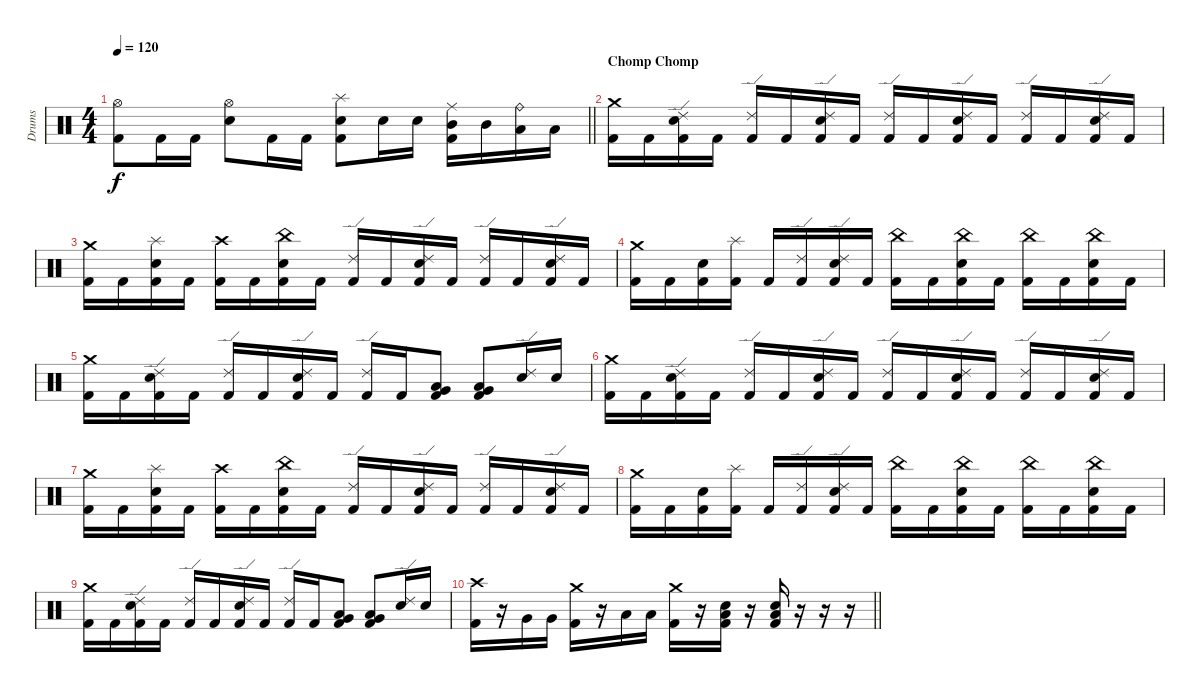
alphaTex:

\track ("Drums" "Drums") {instrument percussion}
\staff {score}
\articulation defaults
\ts (4 4)
\tempo 120
\clef neutral
\barLineRight lightlight
\ks c
("Hi-Hat (open)" "Kick (hit) 2").8{dy f} "Kick (hit) 2".16 "Kick (hit) 2".16 ("Hi-Hat (open)" "Snare (hit) 2").8 "Kick (hit) 2".16 "Kick (hit) 2".16 ("Splash (hit)" "Snare (hit) 2" "Kick (hit) 2").8 "Snare (hit) 2".16 "Snare (hit) 2".16 ("Ride (middle)" "Mid Tom (hit)" "Kick (hit) 2").16 "Mid Tom (hit)".16 ("Ride (bell)" "Low Tom (hit)").16 "Low Tom (hit)".16 |
\section ("" "Chomp Chomp")
("Crash medium (hit)" "Kick (hit) 2").16 "Kick (hit) 2".16 ("Ride (edge) 2" "Snare (hit) 2" "Kick (hit) 2").16 "Kick (hit) 2".16 ("Ride (edge) 2" "Kick (hit) 2").16 "Kick (hit) 2".16 ("Ride (edge) 2" "Snare (hit) 2" "Kick (hit) 2").16 "Kick (hit) 2".16 ("Ride (edge) 2" "Kick (hit) 2").16 "Kick (hit) 2".16 ("Ride (edge) 2" "Snare (hit) 2" "Kick (hit) 2").16 "Kick (hit) 2".16 ("Ride (edge) 2" "Kick (hit) 2").16 "Kick (hit) 2".16 ("Ride (edge) 2" "Snare (hit) 2" "Kick (hit) 2").16 "Kick (hit) 2".16 |
("Crash medium (hit)" "Kick (hit) 2").16 "Kick (hit) 2".16 ("Splash (hit)" "Snare (hit) 2" "Kick (hit) 2").16 "Kick (hit) 2".16 ("Crash high (hit)" "Kick (hit) 2").16 "Kick (hit) 2".16 ("China (hit)" "Snare (hit) 2" "Kick (hit) 2").16 "Kick (hit) 2".16 ("Ride (edge) 2" "Kick (hit) 2").16 "Kick (hit) 2".16 ("Ride (edge) 2" "Snare (hit) 2" "Kick (hit) 2").16 "Kick (hit) 2".16 ("Ride (edge) 2" "Kick (hit) 2").16 "Kick (hit) 2".16 ("Ride (edge) 2" "Snare (hit) 2" "Kick (hit) 2").16 "Kick (hit) 2".16 |
("Crash medium (hit)" "Kick (hit) 2").16 "Kick (hit) 2".16 ("Snare (hit) 2" "Kick (hit) 2").16 ("Splash (hit)" "Kick (hit) 2").16 "Kick (hit) 2".16 ("Ride (edge) 2" "Kick (hit) 2").16 ("Ride (edge) 2" "Snare (hit) 2" "Kick (hit) 2").16 "Kick (hit) 2".16 ("China (hit)" "Kick (hit) 2").16 "Kick (hit) 2".16 ("China (hit)" "Snare (hit) 2" "Kick (hit) 2").16 "Kick (hit) 2".16 ("China (hit)" "Kick (hit) 2").16 "Kick (hit) 2".16 ("China (hit)" "Snare (hit) 2" "Kick (hit) 2").16 "Kick (hit) 2".16 |
("Crash medium (hit)" "Kick (hit) 2").16 "Kick (hit) 2".16 ("Ride (edge) 2" "Snare (hit) 2" "Kick (hit) 2").16 "Kick (hit) 2".16 ("Ride (edge) 2" "Kick (hit) 2").16 "Kick (hit) 2".16 ("Ride (edge) 2" "Snare (hit) 2" "Kick (hit) 2").16 "Kick (hit) 2".16 ("Ride (edge) 2" "Kick (hit) 2").16 "Kick (hit) 2".16 ("Very Low Tom (hit)" "Low Floor Tom (hit)" "Kick (hit) 2").8 ("Very Low Tom (hit)" "Low Floor Tom (hit)" "Kick (hit) 2").8 ("Ride (edge) 2" "Snare (hit) 2").16 "Snare (hit) 2".16 |
("Crash medium (hit)" "Kick (hit) 2").16 "Kick (hit) 2".16 ("Ride (edge) 2" "Snare (hit) 2" "Kick (hit) 2").16 "Kick (hit) 2".16 ("Ride (edge) 2" "Kick (hit) 2").16 "Kick (hit) 2".16 ("Ride (edge) 2" "Snare (hit) 2" "Kick (hit) 2").16 "Kick (hit) 2".16 ("Ride (edge) 2" "Kick (hit) 2").16 "Kick (hit) 2".16 ("Ride (edge) 2" "Snare (hit) 2" "Kick (hit) 2").16 "Kick (hit) 2".16 ("Ride (edge) 2" "Kick (hit) 2").16 "Kick (hit) 2".16 ("Ride (edge) 2" "Snare (hit) 2" "Kick (hit) 2").16 "Kick (hit) 2".16 |
("Crash medium (hit)" "Kick (hit) 2").16 "Kick (hit) 2".16 ("Splash (hit)" "Snare (hit) 2" "Kick (hit) 2").16 "Kick (hit) 2".16 ("Crash high (hit)" "Kick (hit) 2").16 "Kick (hit) 2".16 ("China (hit)" "Snare (hit) 2" "Kick (hit) 2").16 "Kick (hit) 2".16 ("Ride (edge) 2" "Kick (hit) 2").16 "Kick (hit) 2".16 ("Ride (edge) 2" "Snare (hit) 2" "Kick (hit) 2").16 "Kick (hit) 2".16 ("Ride (edge) 2" "Kick (hit) 2").16 "Kick (hit) 2".16 ("Ride (edge) 2" "Snare (hit) 2" "Kick (hit) 2").16 "Kick (hit) 2".16 |
("Crash medium (hit)" "Kick (hit) 2").16 "Kick (hit) 2".16 ("Snare (hit) 2" "Kick (hit) 2").16 ("Splash (hit)" "Kick (hit) 2").16 "Kick (hit) 2".16 ("Ride (edge) 2" "Kick (hit) 2").16 ("Ride (edge) 2" "Snare (hit) 2" "Kick (hit) 2").16 "Kick (hit) 2".16 ("China (hit)" "Kick (hit) 2").16 "Kick (hit) 2".16 ("China (hit)" "Snare (hit) 2" "Kick (hit) 2").16 "Kick (hit) 2".16 ("China (hit)" "Kick (hit) 2").16 "Kick (hit) 2".16 ("China (hit)" "Snare (hit) 2" "Kick (hit) 2").16 "Kick (hit) 2".16 |
("Crash medium (hit)" "Kick (hit) 2").16 "Kick (hit) 2".16 ("Ride (edge) 2" "Snare (hit) 2" "Kick (hit) 2").16 "Kick (hit) 2".16 ("Ride (edge) 2" "Kick (hit) 2").16 "Kick (hit) 2".16 ("Ride (edge) 2" "Snare (hit) 2" "Kick (hit) 2").16 "Kick (hit) 2".16 ("Ride (edge) 2" "Kick (hit) 2").16 "Kick (hit) 2".16 ("Very Low Tom (hit)" "Low Floor Tom (hit)" "Kick (hit) 2").8 ("Very Low Tom (hit)" "Low Floor Tom (hit)" "Kick (hit) 2").8 ("Ride (edge) 2" "Snare (hit) 2").16 "Snare (hit) 2".16 |
\barLineRight lightlight
("Crash high (hit)" "Kick (hit) 2").16 r.16 "Very Low Tom (hit)".16 "Very Low Tom (hit)".16 ("Crash medium (hit)" "Kick (hit) 2").16 r.16 "Low Floor Tom (hit)".16 "Low Floor Tom (hit)".16 ("Crash medium (hit)" "Kick (hit) 2").16 r.16 ("Low Floor Tom (hit)" "Snare (hit) 2" "Kick (hit) 2").16 r.16 ("Low Floor Tom (hit)" "Snare (hit) 2" "Kick (hit) 2").16 r.16 r.16 r.16
